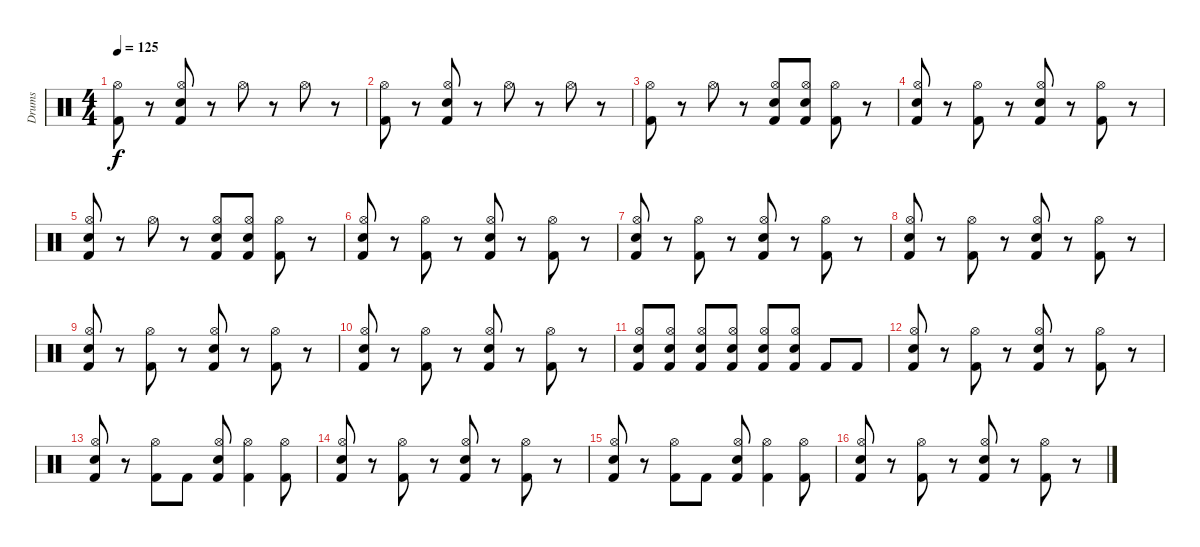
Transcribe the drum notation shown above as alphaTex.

\track ("Drums" "Drums") {instrument percussion}
\staff {score}
\articulation defaults
\ts (4 4)
\tempo 125
\clef neutral
\ks c
("Kick (hit) 2" "Hi-Hat (open)").8{dy f} r.8 ("Kick (hit) 2" "Snare (hit) 2" "Hi-Hat (open)").8 r.8 "Hi-Hat (open)".8 r.8 "Hi-Hat (open)".8 r.8 |
("Kick (hit) 2" "Hi-Hat (open)").8 r.8 ("Kick (hit) 2" "Snare (hit) 2" "Hi-Hat (open)").8 r.8 "Hi-Hat (open)".8 r.8 "Hi-Hat (open)".8 r.8 |
("Kick (hit) 2" "Hi-Hat (open)").8 r.8 "Hi-Hat (open)".8 r.8 ("Kick (hit) 2" "Snare (hit) 2" "Hi-Hat (open)").8 ("Kick (hit) 2" "Snare (hit) 2" "Hi-Hat (open)").8 ("Kick (hit) 2" "Hi-Hat (open)").8 r.8 |
("Kick (hit) 2" "Snare (hit) 2" "Hi-Hat (open)").8 r.8 ("Kick (hit) 2" "Hi-Hat (open)").8 r.8 ("Kick (hit) 2" "Snare (hit) 2" "Hi-Hat (open)").8 r.8 ("Kick (hit) 2" "Hi-Hat (open)").8 r.8 |
("Kick (hit) 2" "Snare (hit) 2" "Hi-Hat (open)").8 r.8 "Hi-Hat (open)".8 r.8 ("Kick (hit) 2" "Snare (hit) 2" "Hi-Hat (open)").8 ("Kick (hit) 2" "Snare (hit) 2" "Hi-Hat (open)").8 ("Kick (hit) 2" "Hi-Hat (open)").8 r.8 |
("Kick (hit) 2" "Snare (hit) 2" "Hi-Hat (open)").8 r.8 ("Kick (hit) 2" "Hi-Hat (open)").8 r.8 ("Kick (hit) 2" "Snare (hit) 2" "Hi-Hat (open)").8 r.8 ("Kick (hit) 2" "Hi-Hat (open)").8 r.8 |
("Kick (hit) 2" "Snare (hit) 2" "Hi-Hat (open)").8 r.8 ("Kick (hit) 2" "Hi-Hat (open)").8 r.8 ("Kick (hit) 2" "Snare (hit) 2" "Hi-Hat (open)").8 r.8 ("Kick (hit) 2" "Hi-Hat (open)").8 r.8 |
("Kick (hit) 2" "Snare (hit) 2" "Hi-Hat (open)").8 r.8 ("Kick (hit) 2" "Hi-Hat (open)").8 r.8 ("Kick (hit) 2" "Snare (hit) 2" "Hi-Hat (open)").8 r.8 ("Kick (hit) 2" "Hi-Hat (open)").8 r.8 |
("Kick (hit) 2" "Snare (hit) 2" "Hi-Hat (open)").8 r.8 ("Kick (hit) 2" "Hi-Hat (open)").8 r.8 ("Kick (hit) 2" "Snare (hit) 2" "Hi-Hat (open)").8 r.8 ("Kick (hit) 2" "Hi-Hat (open)").8 r.8 |
("Kick (hit) 2" "Snare (hit) 2" "Hi-Hat (open)").8 r.8 ("Kick (hit) 2" "Hi-Hat (open)").8 r.8 ("Kick (hit) 2" "Snare (hit) 2" "Hi-Hat (open)").8 r.8 ("Kick (hit) 2" "Hi-Hat (open)").8 r.8 |
("Kick (hit) 2" "Snare (hit) 2" "Hi-Hat (open)").8 ("Kick (hit) 2" "Snare (hit) 2" "Hi-Hat (open)").8 ("Kick (hit) 2" "Snare (hit) 2" "Hi-Hat (open)").8 ("Kick (hit) 2" "Snare (hit) 2" "Hi-Hat (open)").8 ("Kick (hit) 2" "Snare (hit) 2" "Hi-Hat (open)").8 ("Kick (hit) 2" "Snare (hit) 2" "Hi-Hat (open)").8 "Kick (hit) 2".8 "Kick (hit) 2".8 |
("Kick (hit) 2" "Snare (hit) 2" "Hi-Hat (open)").8 r.8 ("Kick (hit) 2" "Hi-Hat (open)").8 r.8 ("Kick (hit) 2" "Snare (hit) 2" "Hi-Hat (open)").8 r.8 ("Kick (hit) 2" "Hi-Hat (open)").8 r.8 |
("Kick (hit) 2" "Snare (hit) 2" "Hi-Hat (open)").8 r.8 ("Kick (hit) 2" "Hi-Hat (open)").8 "Kick (hit) 2".8 ("Kick (hit) 2" "Snare (hit) 2" "Hi-Hat (open)").8 ("Kick (hit) 2" "Hi-Hat (open)").4 ("Kick (hit) 2" "Hi-Hat (open)").8 |
("Kick (hit) 2" "Snare (hit) 2" "Hi-Hat (open)").8 r.8 ("Kick (hit) 2" "Hi-Hat (open)").8 r.8 ("Kick (hit) 2" "Snare (hit) 2" "Hi-Hat (open)").8 r.8 ("Kick (hit) 2" "Hi-Hat (open)").8 r.8 |
("Kick (hit) 2" "Snare (hit) 2" "Hi-Hat (open)").8 r.8 ("Kick (hit) 2" "Hi-Hat (open)").8 "Kick (hit) 2".8 ("Kick (hit) 2" "Snare (hit) 2" "Hi-Hat (open)").8 ("Kick (hit) 2" "Hi-Hat (open)").4 ("Kick (hit) 2" "Hi-Hat (open)").8 |
("Kick (hit) 2" "Snare (hit) 2" "Hi-Hat (open)").8 r.8 ("Kick (hit) 2" "Hi-Hat (open)").8 r.8 ("Kick (hit) 2" "Snare (hit) 2" "Hi-Hat (open)").8 r.8 ("Kick (hit) 2" "Hi-Hat (open)").8 r.8
